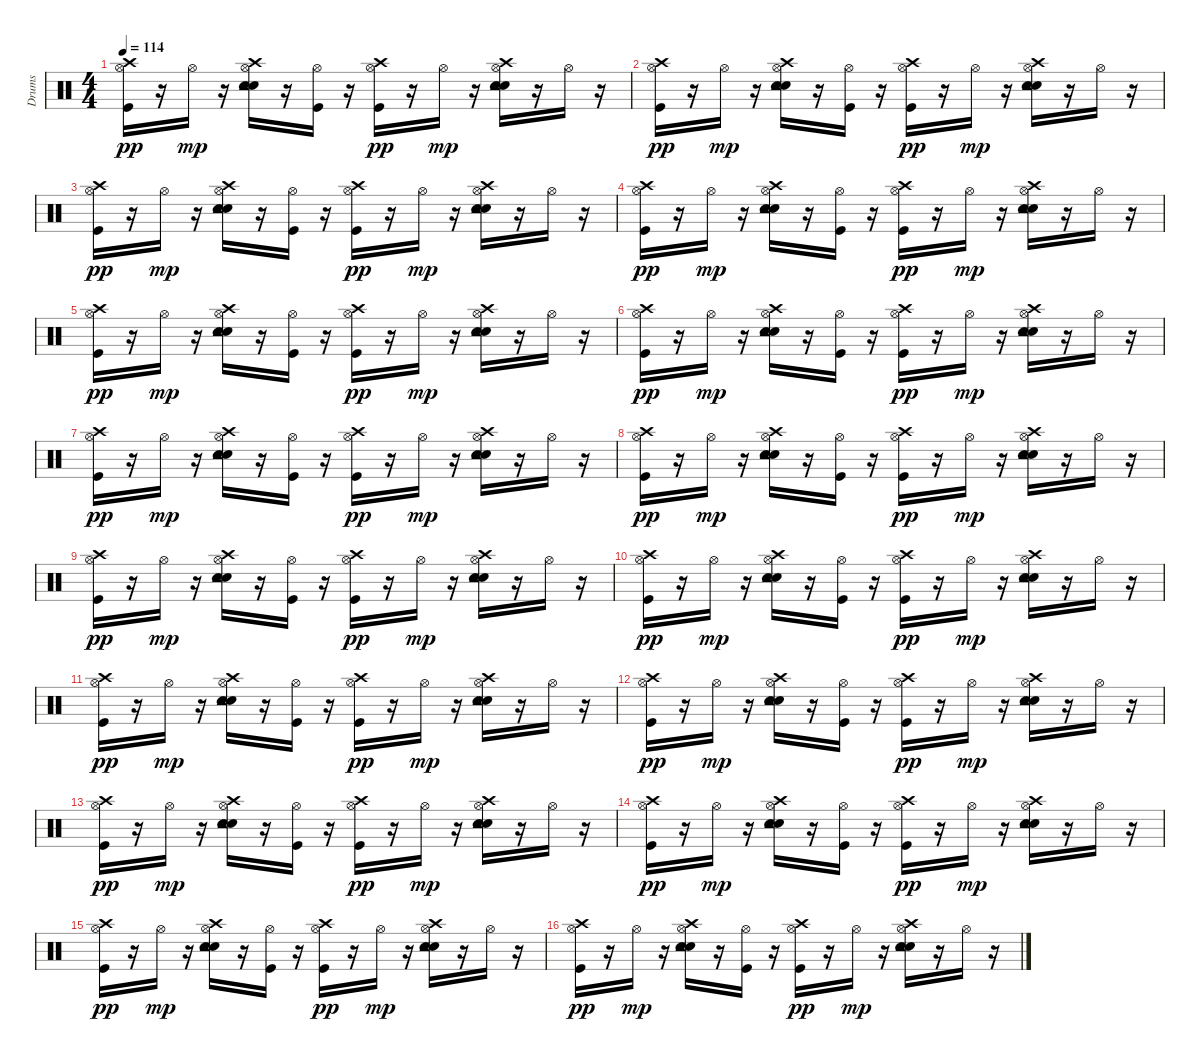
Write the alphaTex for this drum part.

\track ("Drums" "Drums") {instrument percussion}
\staff {score}
\articulation defaults
\ts (4 4)
\tempo 114
\clef neutral
\ks c
("Kick (hit)" "Hi-Hat (open)" "Crash high (hit)").16{dy pp} r.16 "Hi-Hat (open)".16{dy mp} r.16 ("Metronome (bell)" "Electric Snare (hit)" "Hi-Hat (open)" "Crash high (hit)" "Tambourine (hit)").16 r.16 ("Kick (hit)" "Hi-Hat (open)").16 r.16 ("Kick (hit)" "Hi-Hat (open)" "Crash high (hit)").16{dy pp} r.16 "Hi-Hat (open)".16{dy mp} r.16 ("Metronome (bell)" "Electric Snare (hit)" "Hi-Hat (open)" "Crash high (hit)" "Tambourine (hit)").16 r.16 "Hi-Hat (open)".16 r.16 |
("Kick (hit)" "Hi-Hat (open)" "Crash high (hit)").16{dy pp} r.16 "Hi-Hat (open)".16{dy mp} r.16 ("Metronome (bell)" "Electric Snare (hit)" "Hi-Hat (open)" "Crash high (hit)" "Tambourine (hit)").16 r.16 ("Kick (hit)" "Hi-Hat (open)").16 r.16 ("Kick (hit)" "Hi-Hat (open)" "Crash high (hit)").16{dy pp} r.16 "Hi-Hat (open)".16{dy mp} r.16 ("Metronome (bell)" "Electric Snare (hit)" "Hi-Hat (open)" "Crash high (hit)" "Tambourine (hit)").16 r.16 "Hi-Hat (open)".16 r.16 |
("Kick (hit)" "Hi-Hat (open)" "Crash high (hit)").16{dy pp} r.16 "Hi-Hat (open)".16{dy mp} r.16 ("Metronome (bell)" "Electric Snare (hit)" "Hi-Hat (open)" "Crash high (hit)" "Tambourine (hit)").16 r.16 ("Kick (hit)" "Hi-Hat (open)").16 r.16 ("Kick (hit)" "Hi-Hat (open)" "Crash high (hit)").16{dy pp} r.16 "Hi-Hat (open)".16{dy mp} r.16 ("Metronome (bell)" "Electric Snare (hit)" "Hi-Hat (open)" "Crash high (hit)" "Tambourine (hit)").16 r.16 "Hi-Hat (open)".16 r.16 |
("Kick (hit)" "Hi-Hat (open)" "Crash high (hit)").16{dy pp} r.16 "Hi-Hat (open)".16{dy mp} r.16 ("Metronome (bell)" "Electric Snare (hit)" "Hi-Hat (open)" "Crash high (hit)" "Tambourine (hit)").16 r.16 ("Kick (hit)" "Hi-Hat (open)").16 r.16 ("Kick (hit)" "Hi-Hat (open)" "Crash high (hit)").16{dy pp} r.16 "Hi-Hat (open)".16{dy mp} r.16 ("Metronome (bell)" "Electric Snare (hit)" "Hi-Hat (open)" "Crash high (hit)" "Tambourine (hit)").16 r.16 "Hi-Hat (open)".16 r.16 |
("Kick (hit)" "Hi-Hat (open)" "Crash high (hit)").16{dy pp} r.16 "Hi-Hat (open)".16{dy mp} r.16 ("Metronome (bell)" "Electric Snare (hit)" "Hi-Hat (open)" "Crash high (hit)" "Tambourine (hit)").16 r.16 ("Kick (hit)" "Hi-Hat (open)").16 r.16 ("Kick (hit)" "Hi-Hat (open)" "Crash high (hit)").16{dy pp} r.16 "Hi-Hat (open)".16{dy mp} r.16 ("Metronome (bell)" "Electric Snare (hit)" "Hi-Hat (open)" "Crash high (hit)" "Tambourine (hit)").16 r.16 "Hi-Hat (open)".16 r.16 |
("Kick (hit)" "Hi-Hat (open)" "Crash high (hit)").16{dy pp} r.16 "Hi-Hat (open)".16{dy mp} r.16 ("Metronome (bell)" "Electric Snare (hit)" "Hi-Hat (open)" "Crash high (hit)" "Tambourine (hit)").16 r.16 ("Kick (hit)" "Hi-Hat (open)").16 r.16 ("Kick (hit)" "Hi-Hat (open)" "Crash high (hit)").16{dy pp} r.16 "Hi-Hat (open)".16{dy mp} r.16 ("Metronome (bell)" "Electric Snare (hit)" "Hi-Hat (open)" "Crash high (hit)" "Tambourine (hit)").16 r.16 "Hi-Hat (open)".16 r.16 |
("Kick (hit)" "Hi-Hat (open)" "Crash high (hit)").16{dy pp} r.16 "Hi-Hat (open)".16{dy mp} r.16 ("Metronome (bell)" "Electric Snare (hit)" "Hi-Hat (open)" "Crash high (hit)" "Tambourine (hit)").16 r.16 ("Kick (hit)" "Hi-Hat (open)").16 r.16 ("Kick (hit)" "Hi-Hat (open)" "Crash high (hit)").16{dy pp} r.16 "Hi-Hat (open)".16{dy mp} r.16 ("Metronome (bell)" "Electric Snare (hit)" "Hi-Hat (open)" "Crash high (hit)" "Tambourine (hit)").16 r.16 "Hi-Hat (open)".16 r.16 |
("Kick (hit)" "Hi-Hat (open)" "Crash high (hit)").16{dy pp} r.16 "Hi-Hat (open)".16{dy mp} r.16 ("Metronome (bell)" "Electric Snare (hit)" "Hi-Hat (open)" "Crash high (hit)" "Tambourine (hit)").16 r.16 ("Kick (hit)" "Hi-Hat (open)").16 r.16 ("Kick (hit)" "Hi-Hat (open)" "Crash high (hit)").16{dy pp} r.16 "Hi-Hat (open)".16{dy mp} r.16 ("Metronome (bell)" "Electric Snare (hit)" "Hi-Hat (open)" "Crash high (hit)" "Tambourine (hit)").16 r.16 "Hi-Hat (open)".16 r.16 |
("Kick (hit)" "Hi-Hat (open)" "Crash high (hit)").16{dy pp} r.16 "Hi-Hat (open)".16{dy mp} r.16 ("Metronome (bell)" "Electric Snare (hit)" "Hi-Hat (open)" "Crash high (hit)" "Tambourine (hit)").16 r.16 ("Kick (hit)" "Hi-Hat (open)").16 r.16 ("Kick (hit)" "Hi-Hat (open)" "Crash high (hit)").16{dy pp} r.16 "Hi-Hat (open)".16{dy mp} r.16 ("Metronome (bell)" "Electric Snare (hit)" "Hi-Hat (open)" "Crash high (hit)" "Tambourine (hit)").16 r.16 "Hi-Hat (open)".16 r.16 |
("Kick (hit)" "Hi-Hat (open)" "Crash high (hit)").16{dy pp} r.16 "Hi-Hat (open)".16{dy mp} r.16 ("Metronome (bell)" "Electric Snare (hit)" "Hi-Hat (open)" "Crash high (hit)" "Tambourine (hit)").16 r.16 ("Kick (hit)" "Hi-Hat (open)").16 r.16 ("Kick (hit)" "Hi-Hat (open)" "Crash high (hit)").16{dy pp} r.16 "Hi-Hat (open)".16{dy mp} r.16 ("Metronome (bell)" "Electric Snare (hit)" "Hi-Hat (open)" "Crash high (hit)" "Tambourine (hit)").16 r.16 "Hi-Hat (open)".16 r.16 |
("Kick (hit)" "Hi-Hat (open)" "Crash high (hit)").16{dy pp} r.16 "Hi-Hat (open)".16{dy mp} r.16 ("Metronome (bell)" "Electric Snare (hit)" "Hi-Hat (open)" "Crash high (hit)" "Tambourine (hit)").16 r.16 ("Kick (hit)" "Hi-Hat (open)").16 r.16 ("Kick (hit)" "Hi-Hat (open)" "Crash high (hit)").16{dy pp} r.16 "Hi-Hat (open)".16{dy mp} r.16 ("Metronome (bell)" "Electric Snare (hit)" "Hi-Hat (open)" "Crash high (hit)" "Tambourine (hit)").16 r.16 "Hi-Hat (open)".16 r.16 |
("Kick (hit)" "Hi-Hat (open)" "Crash high (hit)").16{dy pp} r.16 "Hi-Hat (open)".16{dy mp} r.16 ("Metronome (bell)" "Electric Snare (hit)" "Hi-Hat (open)" "Crash high (hit)" "Tambourine (hit)").16 r.16 ("Kick (hit)" "Hi-Hat (open)").16 r.16 ("Kick (hit)" "Hi-Hat (open)" "Crash high (hit)").16{dy pp} r.16 "Hi-Hat (open)".16{dy mp} r.16 ("Metronome (bell)" "Electric Snare (hit)" "Hi-Hat (open)" "Crash high (hit)" "Tambourine (hit)").16 r.16 "Hi-Hat (open)".16 r.16 |
("Kick (hit)" "Hi-Hat (open)" "Crash high (hit)").16{dy pp} r.16 "Hi-Hat (open)".16{dy mp} r.16 ("Metronome (bell)" "Electric Snare (hit)" "Hi-Hat (open)" "Crash high (hit)" "Tambourine (hit)").16 r.16 ("Kick (hit)" "Hi-Hat (open)").16 r.16 ("Kick (hit)" "Hi-Hat (open)" "Crash high (hit)").16{dy pp} r.16 "Hi-Hat (open)".16{dy mp} r.16 ("Metronome (bell)" "Electric Snare (hit)" "Hi-Hat (open)" "Crash high (hit)" "Tambourine (hit)").16 r.16 "Hi-Hat (open)".16 r.16 |
("Kick (hit)" "Hi-Hat (open)" "Crash high (hit)").16{dy pp} r.16 "Hi-Hat (open)".16{dy mp} r.16 ("Metronome (bell)" "Electric Snare (hit)" "Hi-Hat (open)" "Crash high (hit)" "Tambourine (hit)").16 r.16 ("Kick (hit)" "Hi-Hat (open)").16 r.16 ("Kick (hit)" "Hi-Hat (open)" "Crash high (hit)").16{dy pp} r.16 "Hi-Hat (open)".16{dy mp} r.16 ("Metronome (bell)" "Electric Snare (hit)" "Hi-Hat (open)" "Crash high (hit)" "Tambourine (hit)").16 r.16 "Hi-Hat (open)".16 r.16 |
("Kick (hit)" "Hi-Hat (open)" "Crash high (hit)").16{dy pp} r.16 "Hi-Hat (open)".16{dy mp} r.16 ("Metronome (bell)" "Electric Snare (hit)" "Hi-Hat (open)" "Crash high (hit)" "Tambourine (hit)").16 r.16 ("Kick (hit)" "Hi-Hat (open)").16 r.16 ("Kick (hit)" "Hi-Hat (open)" "Crash high (hit)").16{dy pp} r.16 "Hi-Hat (open)".16{dy mp} r.16 ("Metronome (bell)" "Electric Snare (hit)" "Hi-Hat (open)" "Crash high (hit)" "Tambourine (hit)").16 r.16 "Hi-Hat (open)".16 r.16 |
("Kick (hit)" "Hi-Hat (open)" "Crash high (hit)").16{dy pp} r.16 "Hi-Hat (open)".16{dy mp} r.16 ("Metronome (bell)" "Electric Snare (hit)" "Hi-Hat (open)" "Crash high (hit)" "Tambourine (hit)").16 r.16 ("Kick (hit)" "Hi-Hat (open)").16 r.16 ("Kick (hit)" "Hi-Hat (open)" "Crash high (hit)").16{dy pp} r.16 "Hi-Hat (open)".16{dy mp} r.16 ("Metronome (bell)" "Electric Snare (hit)" "Hi-Hat (open)" "Crash high (hit)" "Tambourine (hit)").16 r.16 "Hi-Hat (open)".16 r.16
